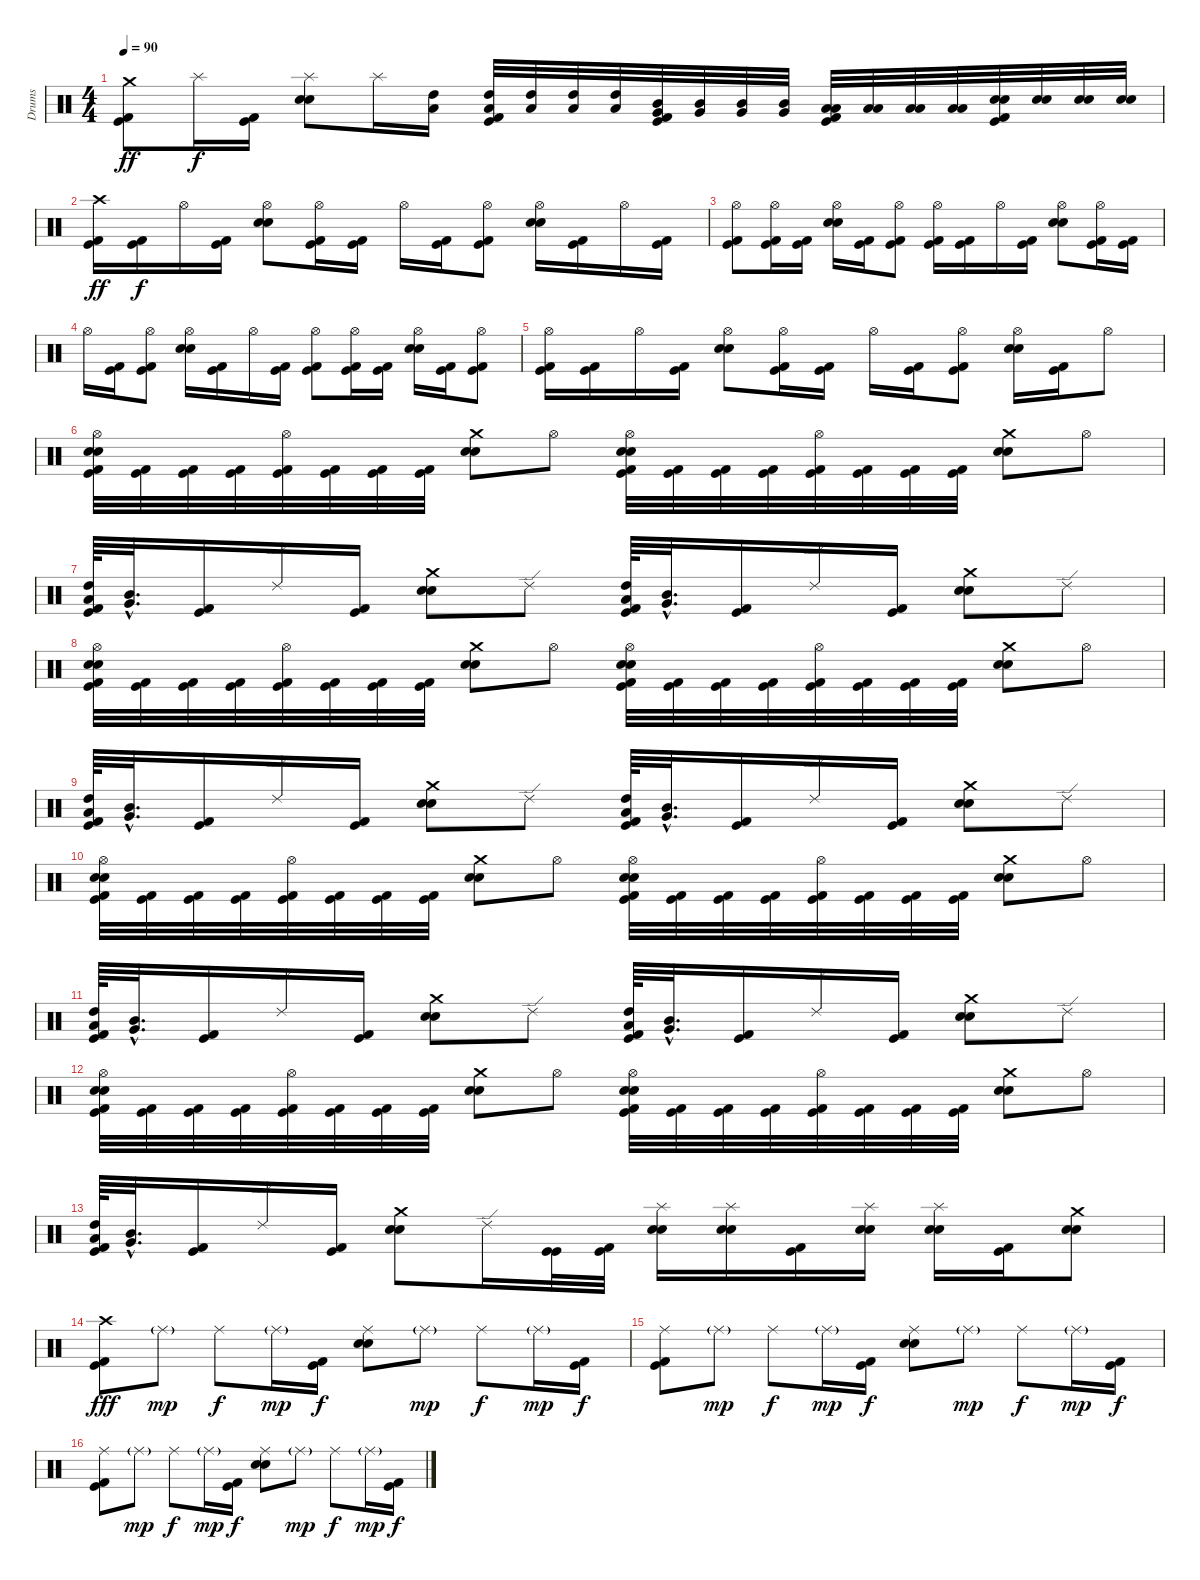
\track ("Drums" "Drums") {instrument percussion}
\staff {score}
\articulation defaults
\ts (4 4)
\tempo 90
\clef neutral
\ks c
("Crash medium (hit)" "Kick (hit) 2" "Kick (hit)").8{dy ff} "Splash (hit)".16{dy f} ("Kick (hit) 2" "Kick (hit)").16 ("Splash (hit)" "Electric Snare (hit)" "Snare (hit) 2").8 "Splash (hit)".16 ("High Tom (hit)" "Low Tom (hit)").16 ("High Tom (hit)" "Low Tom (hit)" "Kick (hit) 2" "Kick (hit)").32 ("High Tom (hit)" "Low Tom (hit)").32 ("High Tom (hit)" "Low Tom (hit)").32 ("High Tom (hit)" "Low Tom (hit)").32 ("Mid Tom (hit)" "Very Low Tom (hit)" "Kick (hit) 2" "Kick (hit)").32 ("Mid Tom (hit)" "Very Low Tom (hit)").32 ("Mid Tom (hit)" "Very Low Tom (hit)").32 ("Mid Tom (hit)" "Very Low Tom (hit)").32 ("Low Tom (hit)" "Low Floor Tom (hit)" "Kick (hit) 2" "Kick (hit)").32 ("Low Tom (hit)" "Low Floor Tom (hit)").32 ("Low Tom (hit)" "Low Floor Tom (hit)").32 ("Low Tom (hit)" "Low Floor Tom (hit)").32 ("Electric Snare (hit)" "Snare (hit) 2" "Kick (hit) 2" "Kick (hit)").32 ("Electric Snare (hit)" "Snare (hit) 2").32 ("Electric Snare (hit)" "Snare (hit) 2").32 ("Electric Snare (hit)" "Snare (hit) 2").32 |
("Crash high (hit)" "Kick (hit) 2" "Kick (hit)").16{dy ff} ("Kick (hit) 2" "Kick (hit)").16{dy f} "Hi-Hat (open)".16 ("Kick (hit) 2" "Kick (hit)").16 ("Hi-Hat (open)" "Electric Snare (hit)" "Snare (hit) 2").8 ("Hi-Hat (open)" "Kick (hit) 2" "Kick (hit)").16 ("Kick (hit) 2" "Kick (hit)").16 "Hi-Hat (open)".16 ("Kick (hit) 2" "Kick (hit)").16 ("Hi-Hat (open)" "Kick (hit) 2" "Kick (hit)").8 ("Hi-Hat (open)" "Electric Snare (hit)" "Snare (hit) 2").16 ("Kick (hit) 2" "Kick (hit)").16 "Hi-Hat (open)".16 ("Kick (hit) 2" "Kick (hit)").16 |
("Hi-Hat (open)" "Kick (hit) 2" "Kick (hit)").8 ("Hi-Hat (open)" "Kick (hit) 2" "Kick (hit)").16 ("Kick (hit) 2" "Kick (hit)").16 ("Hi-Hat (open)" "Electric Snare (hit)" "Snare (hit) 2").16 ("Kick (hit) 2" "Kick (hit)").16 ("Hi-Hat (open)" "Kick (hit) 2" "Kick (hit)").8 ("Hi-Hat (open)" "Kick (hit) 2" "Kick (hit)").16 ("Kick (hit) 2" "Kick (hit)").16 "Hi-Hat (open)".16 ("Kick (hit) 2" "Kick (hit)").16 ("Hi-Hat (open)" "Electric Snare (hit)" "Snare (hit) 2").8 ("Hi-Hat (open)" "Kick (hit) 2" "Kick (hit)").16 ("Kick (hit) 2" "Kick (hit)").16 |
"Hi-Hat (open)".16 ("Kick (hit) 2" "Kick (hit)").16 ("Hi-Hat (open)" "Kick (hit) 2" "Kick (hit)").8 ("Hi-Hat (open)" "Electric Snare (hit)" "Snare (hit) 2").16 ("Kick (hit) 2" "Kick (hit)").16 "Hi-Hat (open)".16 ("Kick (hit) 2" "Kick (hit)").16 ("Hi-Hat (open)" "Kick (hit) 2" "Kick (hit)").8 ("Hi-Hat (open)" "Kick (hit) 2" "Kick (hit)").16 ("Kick (hit) 2" "Kick (hit)").16 ("Hi-Hat (open)" "Electric Snare (hit)" "Snare (hit) 2").16 ("Kick (hit) 2" "Kick (hit)").16 ("Hi-Hat (open)" "Kick (hit) 2" "Kick (hit)").8 |
("Hi-Hat (open)" "Kick (hit) 2" "Kick (hit)").16 ("Kick (hit) 2" "Kick (hit)").16 "Hi-Hat (open)".16 ("Kick (hit) 2" "Kick (hit)").16 ("Hi-Hat (open)" "Electric Snare (hit)" "Snare (hit) 2").8 ("Hi-Hat (open)" "Kick (hit) 2" "Kick (hit)").16 ("Kick (hit) 2" "Kick (hit)").16 "Hi-Hat (open)".16 ("Kick (hit) 2" "Kick (hit)").16 ("Hi-Hat (open)" "Kick (hit) 2" "Kick (hit)").8 ("Hi-Hat (open)" "Electric Snare (hit)" "Snare (hit) 2").16 ("Kick (hit) 2" "Kick (hit)").16 "Hi-Hat (open)".8 |
("Hi-Hat (open)" "Electric Snare (hit)" "Snare (hit) 2" "Kick (hit) 2" "Kick (hit)").32 ("Kick (hit) 2" "Kick (hit)").32 ("Kick (hit) 2" "Kick (hit)").32 ("Kick (hit) 2" "Kick (hit)").32 ("Hi-Hat (open)" "Kick (hit) 2" "Kick (hit)").32 ("Kick (hit) 2" "Kick (hit)").32 ("Kick (hit) 2" "Kick (hit)").32 ("Kick (hit) 2" "Kick (hit)").32 ("Crash medium (hit)" "Electric Snare (hit)" "Snare (hit) 2").8 "Hi-Hat (open)".8 ("Hi-Hat (open)" "Electric Snare (hit)" "Snare (hit) 2" "Kick (hit) 2" "Kick (hit)").32 ("Kick (hit) 2" "Kick (hit)").32 ("Kick (hit) 2" "Kick (hit)").32 ("Kick (hit) 2" "Kick (hit)").32 ("Hi-Hat (open)" "Kick (hit) 2" "Kick (hit)").32 ("Kick (hit) 2" "Kick (hit)").32 ("Kick (hit) 2" "Kick (hit)").32 ("Kick (hit) 2" "Kick (hit)").32 ("Crash medium (hit)" "Electric Snare (hit)" "Snare (hit) 2").8 "Hi-Hat (open)".8 |
("High Tom (hit)" "Low Tom (hit)" "Kick (hit) 2" "Kick (hit)").64 ("Mid Tom (hit)"{hac} "Very Low Tom (hit)"{hac}).32{d} ("Kick (hit) 2" "Kick (hit)").16 "Ride (edge) 2".16 ("Kick (hit) 2" "Kick (hit)").16 ("Crash medium (hit)" "Electric Snare (hit)" "Snare (hit) 2").8 "Ride (edge) 2".8 ("High Tom (hit)" "Low Tom (hit)" "Kick (hit) 2" "Kick (hit)").64 ("Mid Tom (hit)"{hac} "Very Low Tom (hit)"{hac}).32{d} ("Kick (hit) 2" "Kick (hit)").16 "Ride (edge) 2".16 ("Kick (hit) 2" "Kick (hit)").16 ("Crash medium (hit)" "Electric Snare (hit)" "Snare (hit) 2").8 "Ride (edge) 2".8 |
("Hi-Hat (open)" "Electric Snare (hit)" "Snare (hit) 2" "Kick (hit) 2" "Kick (hit)").32 ("Kick (hit) 2" "Kick (hit)").32 ("Kick (hit) 2" "Kick (hit)").32 ("Kick (hit) 2" "Kick (hit)").32 ("Hi-Hat (open)" "Kick (hit) 2" "Kick (hit)").32 ("Kick (hit) 2" "Kick (hit)").32 ("Kick (hit) 2" "Kick (hit)").32 ("Kick (hit) 2" "Kick (hit)").32 ("Crash medium (hit)" "Electric Snare (hit)" "Snare (hit) 2").8 "Hi-Hat (open)".8 ("Hi-Hat (open)" "Electric Snare (hit)" "Snare (hit) 2" "Kick (hit) 2" "Kick (hit)").32 ("Kick (hit) 2" "Kick (hit)").32 ("Kick (hit) 2" "Kick (hit)").32 ("Kick (hit) 2" "Kick (hit)").32 ("Hi-Hat (open)" "Kick (hit) 2" "Kick (hit)").32 ("Kick (hit) 2" "Kick (hit)").32 ("Kick (hit) 2" "Kick (hit)").32 ("Kick (hit) 2" "Kick (hit)").32 ("Crash medium (hit)" "Electric Snare (hit)" "Snare (hit) 2").8 "Hi-Hat (open)".8 |
("High Tom (hit)" "Low Tom (hit)" "Kick (hit) 2" "Kick (hit)").64 ("Mid Tom (hit)"{hac} "Very Low Tom (hit)"{hac}).32{d} ("Kick (hit) 2" "Kick (hit)").16 "Ride (edge) 2".16 ("Kick (hit) 2" "Kick (hit)").16 ("Crash medium (hit)" "Electric Snare (hit)" "Snare (hit) 2").8 "Ride (edge) 2".8 ("High Tom (hit)" "Low Tom (hit)" "Kick (hit) 2" "Kick (hit)").64 ("Mid Tom (hit)"{hac} "Very Low Tom (hit)"{hac}).32{d} ("Kick (hit) 2" "Kick (hit)").16 "Ride (edge) 2".16 ("Kick (hit) 2" "Kick (hit)").16 ("Crash medium (hit)" "Electric Snare (hit)" "Snare (hit) 2").8 "Ride (edge) 2".8 |
("Hi-Hat (open)" "Electric Snare (hit)" "Snare (hit) 2" "Kick (hit) 2" "Kick (hit)").32 ("Kick (hit) 2" "Kick (hit)").32 ("Kick (hit) 2" "Kick (hit)").32 ("Kick (hit) 2" "Kick (hit)").32 ("Hi-Hat (open)" "Kick (hit) 2" "Kick (hit)").32 ("Kick (hit) 2" "Kick (hit)").32 ("Kick (hit) 2" "Kick (hit)").32 ("Kick (hit) 2" "Kick (hit)").32 ("Crash medium (hit)" "Electric Snare (hit)" "Snare (hit) 2").8 "Hi-Hat (open)".8 ("Hi-Hat (open)" "Electric Snare (hit)" "Snare (hit) 2" "Kick (hit) 2" "Kick (hit)").32 ("Kick (hit) 2" "Kick (hit)").32 ("Kick (hit) 2" "Kick (hit)").32 ("Kick (hit) 2" "Kick (hit)").32 ("Hi-Hat (open)" "Kick (hit) 2" "Kick (hit)").32 ("Kick (hit) 2" "Kick (hit)").32 ("Kick (hit) 2" "Kick (hit)").32 ("Kick (hit) 2" "Kick (hit)").32 ("Crash medium (hit)" "Electric Snare (hit)" "Snare (hit) 2").8 "Hi-Hat (open)".8 |
("High Tom (hit)" "Low Tom (hit)" "Kick (hit) 2" "Kick (hit)").64 ("Mid Tom (hit)"{hac} "Very Low Tom (hit)"{hac}).32{d} ("Kick (hit) 2" "Kick (hit)").16 "Ride (edge) 2".16 ("Kick (hit) 2" "Kick (hit)").16 ("Crash medium (hit)" "Electric Snare (hit)" "Snare (hit) 2").8 "Ride (edge) 2".8 ("High Tom (hit)" "Low Tom (hit)" "Kick (hit) 2" "Kick (hit)").64 ("Mid Tom (hit)"{hac} "Very Low Tom (hit)"{hac}).32{d} ("Kick (hit) 2" "Kick (hit)").16 "Ride (edge) 2".16 ("Kick (hit) 2" "Kick (hit)").16 ("Crash medium (hit)" "Electric Snare (hit)" "Snare (hit) 2").8 "Ride (edge) 2".8 |
("Hi-Hat (open)" "Electric Snare (hit)" "Snare (hit) 2" "Kick (hit) 2" "Kick (hit)").32 ("Kick (hit) 2" "Kick (hit)").32 ("Kick (hit) 2" "Kick (hit)").32 ("Kick (hit) 2" "Kick (hit)").32 ("Hi-Hat (open)" "Kick (hit) 2" "Kick (hit)").32 ("Kick (hit) 2" "Kick (hit)").32 ("Kick (hit) 2" "Kick (hit)").32 ("Kick (hit) 2" "Kick (hit)").32 ("Crash medium (hit)" "Electric Snare (hit)" "Snare (hit) 2").8 "Hi-Hat (open)".8 ("Hi-Hat (open)" "Electric Snare (hit)" "Snare (hit) 2" "Kick (hit) 2" "Kick (hit)").32 ("Kick (hit) 2" "Kick (hit)").32 ("Kick (hit) 2" "Kick (hit)").32 ("Kick (hit) 2" "Kick (hit)").32 ("Hi-Hat (open)" "Kick (hit) 2" "Kick (hit)").32 ("Kick (hit) 2" "Kick (hit)").32 ("Kick (hit) 2" "Kick (hit)").32 ("Kick (hit) 2" "Kick (hit)").32 ("Crash medium (hit)" "Electric Snare (hit)" "Snare (hit) 2").8 "Hi-Hat (open)".8 |
("High Tom (hit)" "Low Tom (hit)" "Kick (hit) 2" "Kick (hit)").64 ("Mid Tom (hit)"{hac} "Very Low Tom (hit)"{hac}).32{d} ("Kick (hit) 2" "Kick (hit)").16 "Ride (edge) 2".16 ("Kick (hit) 2" "Kick (hit)").16 ("Crash medium (hit)" "Electric Snare (hit)" "Snare (hit) 2").8 "Ride (edge) 2".16 ("Kick (hit)" "Kick (hit)").32 ("Kick (hit) 2" "Kick (hit)").32 ("Splash (hit)" "Electric Snare (hit)" "Snare (hit) 2").16 ("Splash (hit)" "Electric Snare (hit)" "Snare (hit) 2").16 ("Kick (hit) 2" "Kick (hit)").16 ("Splash (hit)" "Electric Snare (hit)" "Snare (hit) 2").16 ("Splash (hit)" "Electric Snare (hit)" "Snare (hit) 2").16 ("Kick (hit) 2" "Kick (hit)").16 ("Crash medium (hit)" "Electric Snare (hit)" "Snare (hit) 2").8 |
("Crash high (hit)" "Kick (hit) 2" "Kick (hit)").8{dy fff} "Ride (middle)"{g}.8{dy mp} "Ride (middle)".8{dy f} "Ride (middle)"{g}.16{dy mp} ("Kick (hit) 2" "Kick (hit)").16{dy f} ("Ride (middle)" "Electric Snare (hit)" "Snare (hit) 2").8 "Ride (middle)"{g}.8{dy mp} "Ride (middle)".8{dy f} "Ride (middle)"{g}.16{dy mp} ("Kick (hit) 2" "Kick (hit)").16{dy f} |
("Ride (middle)" "Kick (hit) 2" "Kick (hit)").8 "Ride (middle)"{g}.8{dy mp} "Ride (middle)".8{dy f} "Ride (middle)"{g}.16{dy mp} ("Kick (hit) 2" "Kick (hit)").16{dy f} ("Ride (middle)" "Electric Snare (hit)" "Snare (hit) 2").8 "Ride (middle)"{g}.8{dy mp} "Ride (middle)".8{dy f} "Ride (middle)"{g}.16{dy mp} ("Kick (hit) 2" "Kick (hit)").16{dy f} |
("Ride (middle)" "Kick (hit) 2" "Kick (hit)").8 "Ride (middle)"{g}.8{dy mp} "Ride (middle)".8{dy f} "Ride (middle)"{g}.16{dy mp} ("Kick (hit) 2" "Kick (hit)").16{dy f} ("Ride (middle)" "Electric Snare (hit)" "Snare (hit) 2").8 "Ride (middle)"{g}.8{dy mp} "Ride (middle)".8{dy f} "Ride (middle)"{g}.16{dy mp} ("Kick (hit) 2" "Kick (hit)").16{dy f}
